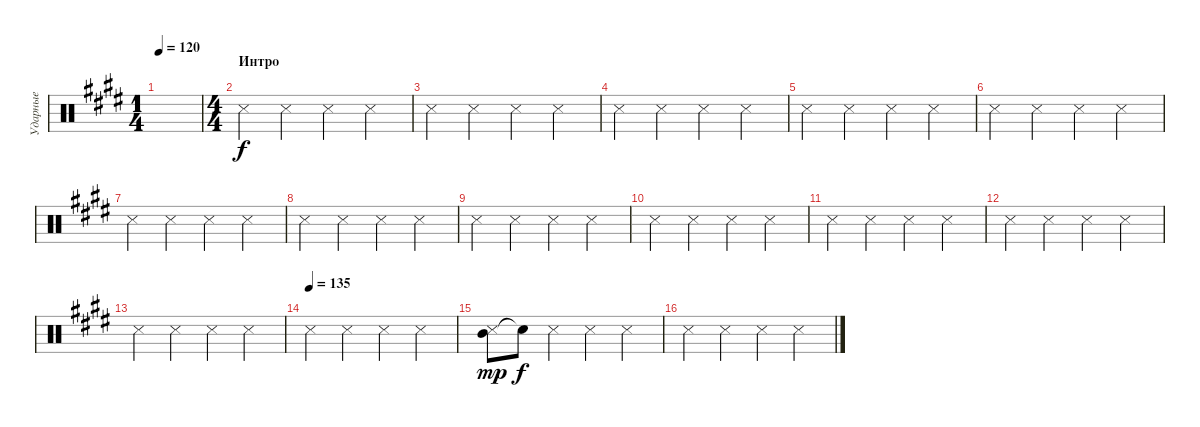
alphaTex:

\track ("Ударные" "Ударные") {instrument percussion}
\staff {score}
\articulation defaults
\ts (1 4)
\tempo 120
\tempo 135
\tempo 120
\clef neutral
\ks e
|
\ts (4 4)
\section ("" "Интро")
"Snare (side stick) 3".4 "Snare (side stick) 3".4 "Snare (side stick) 3".4 "Snare (side stick) 3".4 |
"Snare (side stick) 3".4 "Snare (side stick) 3".4 "Snare (side stick) 3".4 "Snare (side stick) 3".4 |
"Snare (side stick) 3".4 "Snare (side stick) 3".4 "Snare (side stick) 3".4 "Snare (side stick) 3".4 |
"Snare (side stick) 3".4 "Snare (side stick) 3".4 "Snare (side stick) 3".4 "Snare (side stick) 3".4 |
"Snare (side stick) 3".4 "Snare (side stick) 3".4 "Snare (side stick) 3".4 "Snare (side stick) 3".4 |
"Snare (side stick) 3".4 "Snare (side stick) 3".4 "Snare (side stick) 3".4 "Snare (side stick) 3".4 |
"Snare (side stick) 3".4 "Snare (side stick) 3".4 "Snare (side stick) 3".4 "Snare (side stick) 3".4 |
"Snare (side stick) 3".4 "Snare (side stick) 3".4 "Snare (side stick) 3".4 "Snare (side stick) 3".4 |
"Snare (side stick) 3".4 "Snare (side stick) 3".4 "Snare (side stick) 3".4 "Snare (side stick) 3".4 |
"Snare (side stick) 3".4 "Snare (side stick) 3".4 "Snare (side stick) 3".4 "Snare (side stick) 3".4 |
"Snare (side stick) 3".4 "Snare (side stick) 3".4 "Snare (side stick) 3".4 "Snare (side stick) 3".4 |
"Snare (side stick) 3".4 "Snare (side stick) 3".4 "Snare (side stick) 3".4 "Snare (side stick) 3".4 |
\tempo (135)
"Snare (side stick) 3".4 "Snare (side stick) 3".4 "Snare (side stick) 3".4 "Snare (side stick) 3".4 |
("Mid Tom (hit)" "Snare (side stick) 3").8{dy mp} "Snare (hit)"{t}.8{dy f} "Snare (side stick) 3".4 "Snare (side stick) 3".4 "Snare (side stick) 3".4 |
"Snare (side stick) 3".4 "Snare (side stick) 3".4 "Snare (side stick) 3".4 "Snare (side stick) 3".4
